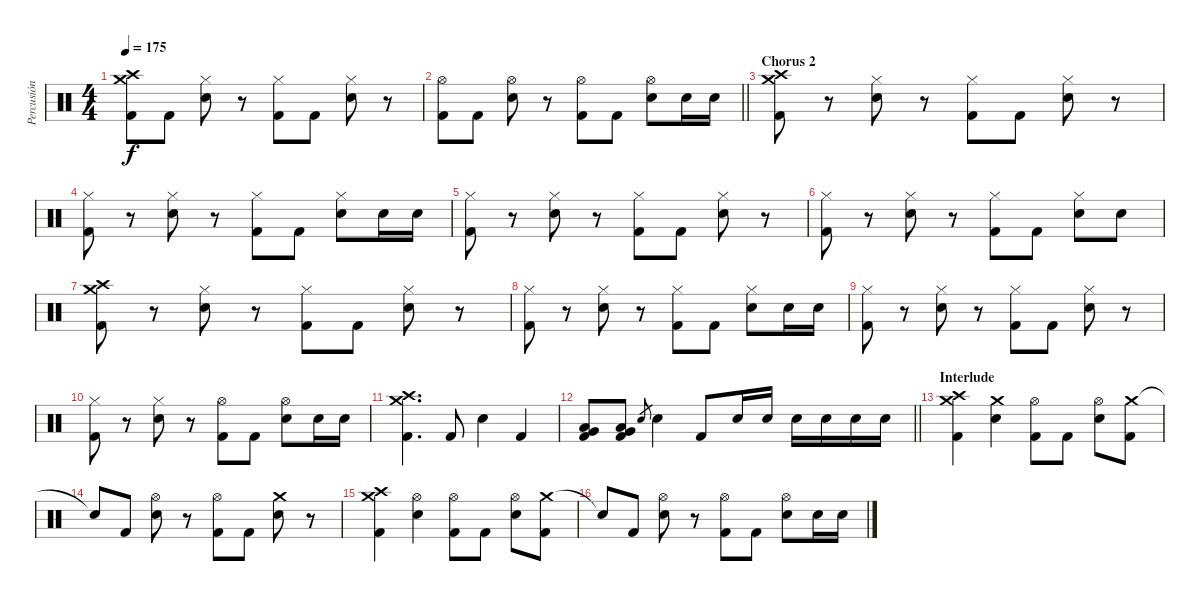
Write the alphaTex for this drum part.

\track ("Percusión" "Percusión") {instrument percussion}
\staff {score}
\articulation defaults
\ts (4 4)
\tempo 175
\clef neutral
\ks c
("Crash high (hit)" "Crash medium (hit)" "Kick (hit) 2").8{dy f} "Kick (hit) 2".8 ("Hi-Hat (closed)" "Electric Snare (hit)").8 r.8 ("Hi-Hat (closed)" "Kick (hit) 2").8 "Kick (hit) 2".8 ("Hi-Hat (closed)" "Electric Snare (hit)").8 r.8 |
\barLineRight lightlight
("Hi-Hat (open)" "Kick (hit) 2").8 "Kick (hit) 2".8 ("Hi-Hat (open)" "Electric Snare (hit)").8 r.8 ("Hi-Hat (open)" "Kick (hit) 2").8 "Kick (hit) 2".8 ("Hi-Hat (open)" "Electric Snare (hit)").8 "Electric Snare (hit)".16 "Electric Snare (hit)".16 |
\section ("" "Chorus 2")
("Crash high (hit)" "Crash medium (hit)" "Kick (hit) 2").8 r.8 ("Hi-Hat (closed)" "Electric Snare (hit)").8 r.8 ("Hi-Hat (closed)" "Kick (hit) 2").8 "Kick (hit) 2".8 ("Hi-Hat (closed)" "Electric Snare (hit)").8 r.8 |
("Hi-Hat (closed)" "Kick (hit) 2").8 r.8 ("Hi-Hat (closed)" "Electric Snare (hit)").8 r.8 ("Hi-Hat (closed)" "Kick (hit) 2").8 "Kick (hit) 2".8 ("Hi-Hat (closed)" "Electric Snare (hit)").8 "Electric Snare (hit)".16 "Electric Snare (hit)".16 |
("Hi-Hat (closed)" "Kick (hit) 2").8 r.8 ("Hi-Hat (closed)" "Electric Snare (hit)").8 r.8 ("Hi-Hat (closed)" "Kick (hit) 2").8 "Kick (hit) 2".8 ("Hi-Hat (closed)" "Electric Snare (hit)").8 r.8 |
("Hi-Hat (closed)" "Kick (hit) 2").8 r.8 ("Hi-Hat (closed)" "Electric Snare (hit)").8 r.8 ("Hi-Hat (closed)" "Kick (hit) 2").8 "Kick (hit) 2".8 ("Hi-Hat (closed)" "Electric Snare (hit)").8 "Electric Snare (hit)".8 |
("Crash high (hit)" "Crash medium (hit)" "Kick (hit) 2").8 r.8 ("Hi-Hat (closed)" "Electric Snare (hit)").8 r.8 ("Hi-Hat (closed)" "Kick (hit) 2").8 "Kick (hit) 2".8 ("Hi-Hat (closed)" "Electric Snare (hit)").8 r.8 |
("Hi-Hat (closed)" "Kick (hit) 2").8 r.8 ("Hi-Hat (closed)" "Electric Snare (hit)").8 r.8 ("Hi-Hat (closed)" "Kick (hit) 2").8 "Kick (hit) 2".8 ("Hi-Hat (closed)" "Electric Snare (hit)").8 "Electric Snare (hit)".16 "Electric Snare (hit)".16 |
("Hi-Hat (closed)" "Kick (hit) 2").8 r.8 ("Hi-Hat (closed)" "Electric Snare (hit)").8 r.8 ("Hi-Hat (closed)" "Kick (hit) 2").8 "Kick (hit) 2".8 ("Hi-Hat (closed)" "Electric Snare (hit)").8 r.8 |
("Hi-Hat (closed)" "Kick (hit) 2").8 r.8 ("Hi-Hat (closed)" "Electric Snare (hit)").8 r.8 ("Hi-Hat (open)" "Kick (hit) 2").8 "Kick (hit) 2".8 ("Hi-Hat (open)" "Electric Snare (hit)").8 "Electric Snare (hit)".16 "Electric Snare (hit)".16 |
("Crash high (hit)" "Crash medium (hit)" "Kick (hit) 2").4{d} "Kick (hit) 2".8 "Electric Snare (hit)".4 "Kick (hit) 2".4 |
\barLineRight lightlight
("Low Tom (hit)" "Very Low Tom (hit)" "Kick (hit) 2").8 ("Low Tom (hit)" "Very Low Tom (hit)" "Kick (hit) 2").8 "Electric Snare (hit)".8{gr} "Electric Snare (hit)".4 "Kick (hit) 2".8 "Electric Snare (hit)".16 "Electric Snare (hit)".16 "Electric Snare (hit)".16 "Electric Snare (hit)".16 "Electric Snare (hit)".16 "Electric Snare (hit)".16 |
\section ("" "Interlude")
("Crash high (hit)" "Crash medium (hit)" "Kick (hit) 2").4 ("Crash medium (hit)" "Electric Snare (hit)").4 ("Hi-Hat (open)" "Kick (hit) 2").8 "Kick (hit) 2".8 ("Hi-Hat (open)" "Electric Snare (hit)").8 ("Crash medium (hit)" "Kick (hit) 2").8 |
"Snare (hit)"{t}.8 "Kick (hit) 2".8 ("Hi-Hat (open)" "Electric Snare (hit)").8 r.8 ("Hi-Hat (open)" "Kick (hit) 2").8 "Kick (hit) 2".8 ("Crash medium (hit)" "Electric Snare (hit)").8 r.8 |
("Crash high (hit)" "Crash medium (hit)" "Kick (hit) 2").4 ("Hi-Hat (open)" "Electric Snare (hit)").4 ("Hi-Hat (open)" "Kick (hit) 2").8 "Kick (hit) 2".8 ("Hi-Hat (open)" "Electric Snare (hit)").8 ("Crash medium (hit)" "Kick (hit) 2").8 |
"Snare (hit)"{t}.8 "Kick (hit) 2".8 ("Hi-Hat (open)" "Electric Snare (hit)").8 r.8 ("Hi-Hat (open)" "Kick (hit) 2").8 "Kick (hit) 2".8 ("Hi-Hat (open)" "Electric Snare (hit)").8 "Electric Snare (hit)".16 "Electric Snare (hit)".16
